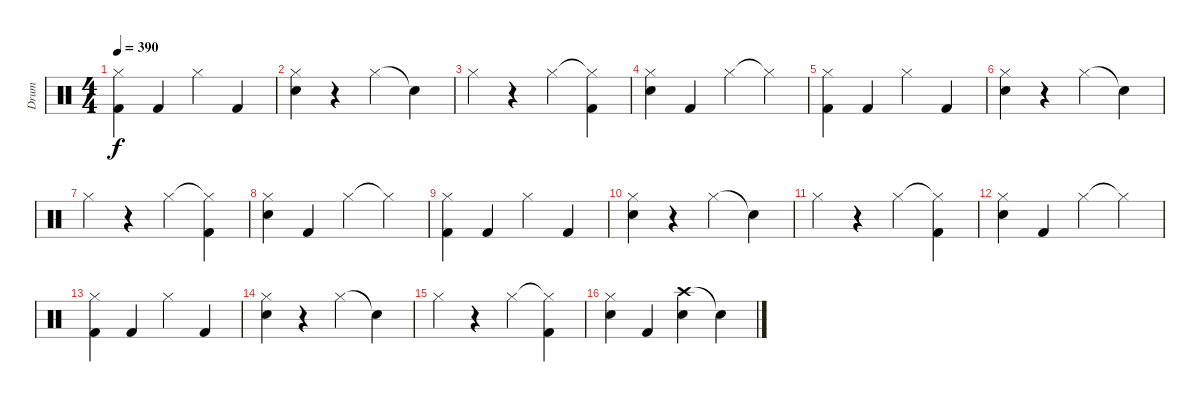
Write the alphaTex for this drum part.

\track ("Drum" "Drum") {instrument percussion}
\staff {score}
\articulation defaults
\ts (4 4)
\tempo 390
\clef neutral
\ks c
("Hi-Hat (closed)" "Kick (hit) 2").4{dy f} "Kick (hit) 2".4 "Hi-Hat (closed)".4 "Kick (hit) 2".4 |
("Hi-Hat (closed)" "Electric Snare (hit)").4 r.4 "Hi-Hat (closed)".4 "Snare (hit)"{t}.4 |
"Hi-Hat (closed)".4 r.4 "Hi-Hat (closed)".4 ("Hi-Hat (closed)"{t} "Kick (hit) 2").4 |
("Hi-Hat (closed)" "Electric Snare (hit)").4 "Kick (hit) 2".4 "Hi-Hat (closed)".4 "Hi-Hat (closed)"{t}.4 |
("Hi-Hat (closed)" "Kick (hit) 2").4 "Kick (hit) 2".4 "Hi-Hat (closed)".4 "Kick (hit) 2".4 |
("Hi-Hat (closed)" "Electric Snare (hit)").4 r.4 "Hi-Hat (closed)".4 "Snare (hit)"{t}.4 |
"Hi-Hat (closed)".4 r.4 "Hi-Hat (closed)".4 ("Hi-Hat (closed)"{t} "Kick (hit) 2").4 |
("Hi-Hat (closed)" "Electric Snare (hit)").4 "Kick (hit) 2".4 "Hi-Hat (closed)".4 "Hi-Hat (closed)"{t}.4 |
("Hi-Hat (closed)" "Kick (hit) 2").4 "Kick (hit) 2".4 "Hi-Hat (closed)".4 "Kick (hit) 2".4 |
("Hi-Hat (closed)" "Electric Snare (hit)").4 r.4 "Hi-Hat (closed)".4 "Snare (hit)"{t}.4 |
"Hi-Hat (closed)".4 r.4 "Hi-Hat (closed)".4 ("Hi-Hat (closed)"{t} "Kick (hit) 2").4 |
("Hi-Hat (closed)" "Electric Snare (hit)").4 "Kick (hit) 2".4 "Hi-Hat (closed)".4 "Hi-Hat (closed)"{t}.4 |
("Hi-Hat (closed)" "Kick (hit) 2").4 "Kick (hit) 2".4 "Hi-Hat (closed)".4 "Kick (hit) 2".4 |
("Hi-Hat (closed)" "Electric Snare (hit)").4 r.4 "Hi-Hat (closed)".4 "Snare (hit)"{t}.4 |
"Hi-Hat (closed)".4 r.4 "Hi-Hat (closed)".4 ("Hi-Hat (closed)"{t} "Kick (hit) 2").4 |
("Hi-Hat (closed)" "Electric Snare (hit)").4 "Kick (hit) 2".4 ("Crash high (hit)" "Electric Snare (hit)").4 "Snare (hit)"{t}.4
